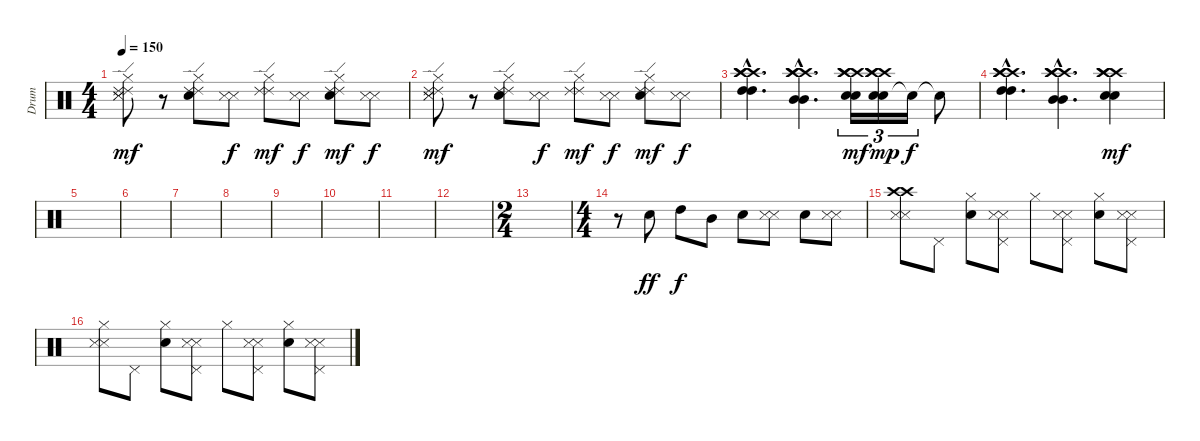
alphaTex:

\track ("Drum" "Drum") {instrument percussion}
\staff {score}
\articulation defaults
\ts (4 4)
\tempo 150
\clef neutral
\ks c
("Metronome (hit)" "Metronome (hit)" "Ride (edge) 2" "Ride (edge) 2" "Hi-Hat (closed)").8{dy mf} r.8 ("Electric Snare (hit)" "Ride (edge) 2" "Ride (edge) 2" "Hi-Hat (closed)").8 ("Metronome (hit)" "Metronome (hit)").8{dy f} ("Ride (edge) 2" "Ride (edge) 2" "Hi-Hat (closed)").8{dy mf} ("Metronome (hit)" "Metronome (hit)").8{dy f} ("Electric Snare (hit)" "Ride (edge) 2" "Ride (edge) 2" "Hi-Hat (closed)").8{dy mf} ("Metronome (hit)" "Metronome (hit)").8{dy f} |
("Metronome (hit)" "Metronome (hit)" "Ride (edge) 2" "Ride (edge) 2" "Hi-Hat (closed)").8{dy mf} r.8 ("Electric Snare (hit)" "Ride (edge) 2" "Ride (edge) 2" "Hi-Hat (closed)").8 ("Metronome (hit)" "Metronome (hit)").8{dy f} ("Ride (edge) 2" "Ride (edge) 2" "Hi-Hat (closed)").8{dy mf} ("Metronome (hit)" "Metronome (hit)").8{dy f} ("Electric Snare (hit)" "Ride (edge) 2" "Ride (edge) 2" "Hi-Hat (closed)").8{dy mf} ("Metronome (hit)" "Metronome (hit)").8{dy f} |
("High Tom (hit)"{hac} "High Tom (hit)"{hac} "Crash high (hit)"{hac} "Crash high (hit)"{hac} "Crash high (hit)"{hac}).4{d} ("Mid Tom (hit)"{hac} "Mid Tom (hit)"{hac} "Crash high (hit)"{hac} "Crash high (hit)"{hac} "Crash high (hit)"{hac}).4{d} ("Electric Snare (hit)" "Electric Snare (hit)" "Crash high (hit)" "Crash high (hit)" "Crash high (hit)").16{tu (3 2) dy mf} ("Electric Snare (hit)" "Electric Snare (hit)" "Crash high (hit)" "Crash high (hit)" "Crash high (hit)").16{tu (3 2) dy mp} "Snare (hit)"{t}.16{tu (3 2) dy f} "Snare (hit)"{t}.8 |
("High Tom (hit)"{hac} "High Tom (hit)"{hac} "Crash high (hit)"{hac} "Crash high (hit)"{hac} "Crash high (hit)"{hac}).4{d} ("Mid Tom (hit)"{hac} "Mid Tom (hit)"{hac} "Crash high (hit)"{hac} "Crash high (hit)"{hac} "Crash high (hit)"{hac}).4{d} ("Electric Snare (hit)" "Electric Snare (hit)" "Crash high (hit)" "Crash high (hit)" "Crash high (hit)").4{dy mf} |
|
|
|
|
|
|
|
|
\ts (2 4)
|
\ts (4 4)
r.8 "Electric Snare (hit)".8{dy ff} "High Tom (hit)".8{dy f} "Mid Tom (hit)".8 "Electric Snare (hit)".8 ("Metronome (hit)" "Metronome (hit)").8 "Electric Snare (hit)".8 ("Metronome (hit)" "Metronome (hit)").8 |
("Metronome (hit)" "Metronome (hit)" "Crash high (hit)" "Crash high (hit)").8 "Pedal Hi-Hat (hit)".8 ("Electric Snare (hit)" "Hi-Hat (closed)").8 ("Metronome (hit)" "Metronome (hit)" "Pedal Hi-Hat (hit)").8 "Hi-Hat (closed)".8 ("Metronome (hit)" "Metronome (hit)" "Pedal Hi-Hat (hit)").8 ("Electric Snare (hit)" "Hi-Hat (closed)").8 ("Metronome (hit)" "Metronome (hit)" "Pedal Hi-Hat (hit)").8 |
("Metronome (hit)" "Metronome (hit)" "Hi-Hat (closed)").8 "Pedal Hi-Hat (hit)".8 ("Electric Snare (hit)" "Hi-Hat (closed)").8 ("Metronome (hit)" "Metronome (hit)" "Pedal Hi-Hat (hit)").8 "Hi-Hat (closed)".8 ("Metronome (hit)" "Metronome (hit)" "Pedal Hi-Hat (hit)").8 ("Electric Snare (hit)" "Hi-Hat (closed)").8 ("Metronome (hit)" "Metronome (hit)" "Pedal Hi-Hat (hit)").8
